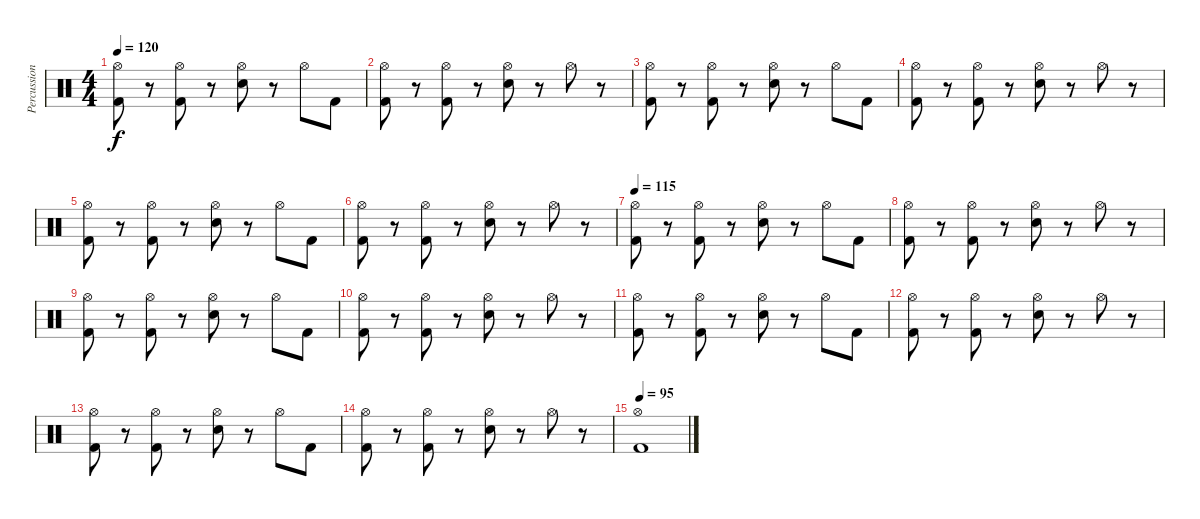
\track ("Percussion" "Percussion") {instrument percussion}
\staff {score}
\articulation defaults
\ts (4 4)
\tempo 120
\clef neutral
\ks c
("Hi-Hat (open)" "Kick (hit) 2").8{dy f} r.8 ("Hi-Hat (open)" "Kick (hit) 2").8 r.8 ("Hi-Hat (open)" "Electric Snare (hit)").8 r.8 "Hi-Hat (open)".8 "Kick (hit) 2".8 |
("Hi-Hat (open)" "Kick (hit) 2").8 r.8 ("Hi-Hat (open)" "Kick (hit) 2").8 r.8 ("Hi-Hat (open)" "Electric Snare (hit)").8 r.8 "Hi-Hat (open)".8 r.8 |
("Hi-Hat (open)" "Kick (hit) 2").8 r.8 ("Hi-Hat (open)" "Kick (hit) 2").8 r.8 ("Hi-Hat (open)" "Electric Snare (hit)").8 r.8 "Hi-Hat (open)".8 "Kick (hit) 2".8 |
("Hi-Hat (open)" "Kick (hit) 2").8 r.8 ("Hi-Hat (open)" "Kick (hit) 2").8 r.8 ("Hi-Hat (open)" "Electric Snare (hit)").8 r.8 "Hi-Hat (open)".8 r.8 |
("Hi-Hat (open)" "Kick (hit) 2").8 r.8 ("Hi-Hat (open)" "Kick (hit) 2").8 r.8 ("Hi-Hat (open)" "Electric Snare (hit)").8 r.8 "Hi-Hat (open)".8 "Kick (hit) 2".8 |
("Hi-Hat (open)" "Kick (hit) 2").8 r.8 ("Hi-Hat (open)" "Kick (hit) 2").8 r.8 ("Hi-Hat (open)" "Electric Snare (hit)").8 r.8 "Hi-Hat (open)".8 r.8 |
\tempo 115
("Hi-Hat (open)" "Kick (hit) 2").8 r.8 ("Hi-Hat (open)" "Kick (hit) 2").8 r.8 ("Hi-Hat (open)" "Electric Snare (hit)").8 r.8 "Hi-Hat (open)".8 "Kick (hit) 2".8 |
("Hi-Hat (open)" "Kick (hit) 2").8 r.8 ("Hi-Hat (open)" "Kick (hit) 2").8 r.8 ("Hi-Hat (open)" "Electric Snare (hit)").8 r.8 "Hi-Hat (open)".8 r.8 |
("Hi-Hat (open)" "Kick (hit) 2").8 r.8 ("Hi-Hat (open)" "Kick (hit) 2").8 r.8 ("Hi-Hat (open)" "Electric Snare (hit)").8 r.8 "Hi-Hat (open)".8 "Kick (hit) 2".8 |
("Hi-Hat (open)" "Kick (hit) 2").8 r.8 ("Hi-Hat (open)" "Kick (hit) 2").8 r.8 ("Hi-Hat (open)" "Electric Snare (hit)").8 r.8 "Hi-Hat (open)".8 r.8 |
("Hi-Hat (open)" "Kick (hit) 2").8 r.8 ("Hi-Hat (open)" "Kick (hit) 2").8 r.8 ("Hi-Hat (open)" "Electric Snare (hit)").8 r.8 "Hi-Hat (open)".8 "Kick (hit) 2".8 |
("Hi-Hat (open)" "Kick (hit) 2").8 r.8 ("Hi-Hat (open)" "Kick (hit) 2").8 r.8 ("Hi-Hat (open)" "Electric Snare (hit)").8 r.8 "Hi-Hat (open)".8 r.8 |
("Hi-Hat (open)" "Kick (hit) 2").8 r.8 ("Hi-Hat (open)" "Kick (hit) 2").8 r.8 ("Hi-Hat (open)" "Electric Snare (hit)").8 r.8 "Hi-Hat (open)".8 "Kick (hit) 2".8 |
("Hi-Hat (open)" "Kick (hit) 2").8 r.8 ("Hi-Hat (open)" "Kick (hit) 2").8 r.8 ("Hi-Hat (open)" "Electric Snare (hit)").8 r.8 "Hi-Hat (open)".8 r.8 |
\tempo 95
("Hi-Hat (open)" "Kick (hit) 2").1
